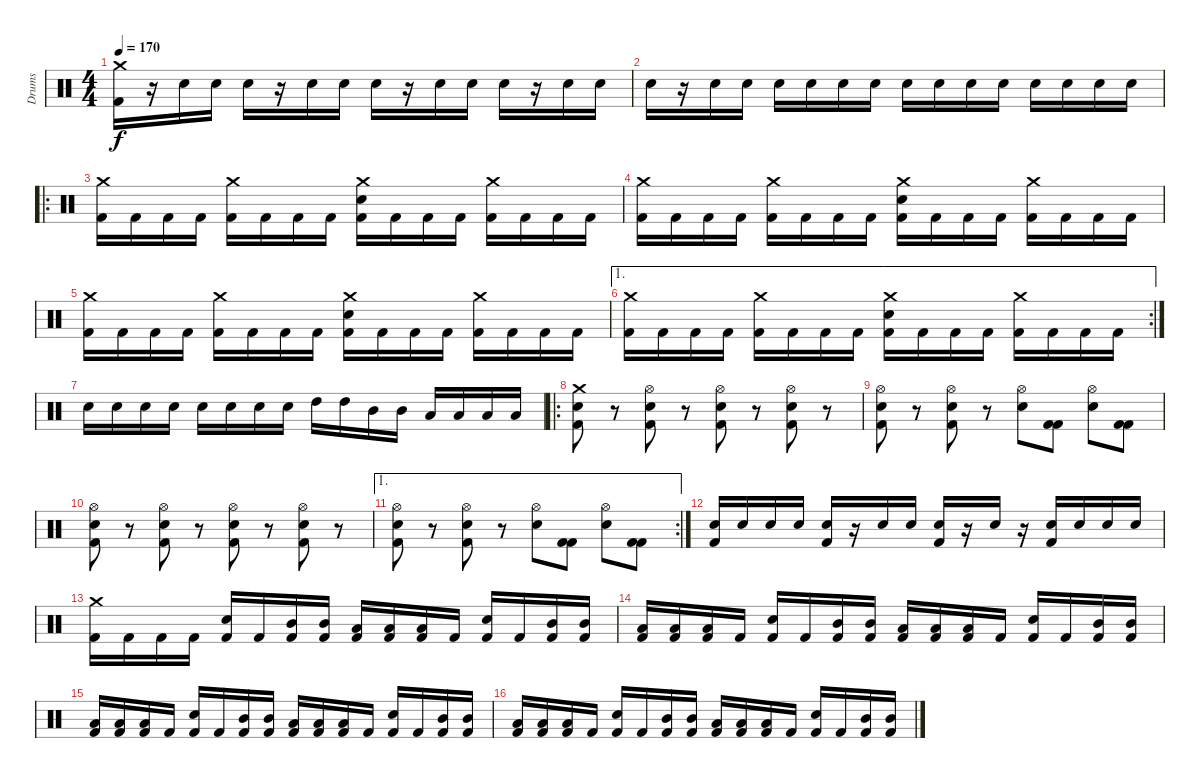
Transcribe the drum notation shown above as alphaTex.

\track ("Drums" "Drums") {instrument percussion}
\staff {score}
\articulation defaults
\ts (4 4)
\tempo 170
\clef neutral
\ks c
("Crash medium (hit)" "Kick (hit) 2").16{dy f} r.16 "Electric Snare (hit)".16 "Electric Snare (hit)".16 "Electric Snare (hit)".16 r.16 "Electric Snare (hit)".16 "Electric Snare (hit)".16 "Electric Snare (hit)".16 r.16 "Electric Snare (hit)".16 "Electric Snare (hit)".16 "Electric Snare (hit)".16 r.16 "Electric Snare (hit)".16 "Electric Snare (hit)".16 |
"Electric Snare (hit)".16 r.16 "Electric Snare (hit)".16 "Electric Snare (hit)".16 "Electric Snare (hit)".16 "Electric Snare (hit)".16 "Electric Snare (hit)".16 "Electric Snare (hit)".16 "Electric Snare (hit)".16 "Electric Snare (hit)".16 "Electric Snare (hit)".16 "Electric Snare (hit)".16 "Electric Snare (hit)".16 "Electric Snare (hit)".16 "Electric Snare (hit)".16 "Electric Snare (hit)".16 |
\ro
("Crash medium (hit)" "Kick (hit) 2").16 "Kick (hit) 2".16 "Kick (hit) 2".16 "Kick (hit) 2".16 ("Crash medium (hit)" "Kick (hit) 2").16 "Kick (hit) 2".16 "Kick (hit) 2".16 "Kick (hit) 2".16 ("Crash medium (hit)" "Electric Snare (hit)" "Kick (hit) 2").16 "Kick (hit) 2".16 "Kick (hit) 2".16 "Kick (hit) 2".16 ("Crash medium (hit)" "Kick (hit) 2").16 "Kick (hit) 2".16 "Kick (hit) 2".16 "Kick (hit) 2".16 |
("Crash medium (hit)" "Kick (hit) 2").16 "Kick (hit) 2".16 "Kick (hit) 2".16 "Kick (hit) 2".16 ("Crash medium (hit)" "Kick (hit) 2").16 "Kick (hit) 2".16 "Kick (hit) 2".16 "Kick (hit) 2".16 ("Crash medium (hit)" "Electric Snare (hit)" "Kick (hit) 2").16 "Kick (hit) 2".16 "Kick (hit) 2".16 "Kick (hit) 2".16 ("Crash medium (hit)" "Kick (hit) 2").16 "Kick (hit) 2".16 "Kick (hit) 2".16 "Kick (hit) 2".16 |
("Crash medium (hit)" "Kick (hit) 2").16 "Kick (hit) 2".16 "Kick (hit) 2".16 "Kick (hit) 2".16 ("Crash medium (hit)" "Kick (hit) 2").16 "Kick (hit) 2".16 "Kick (hit) 2".16 "Kick (hit) 2".16 ("Crash medium (hit)" "Electric Snare (hit)" "Kick (hit) 2").16 "Kick (hit) 2".16 "Kick (hit) 2".16 "Kick (hit) 2".16 ("Crash medium (hit)" "Kick (hit) 2").16 "Kick (hit) 2".16 "Kick (hit) 2".16 "Kick (hit) 2".16 |
\ae 1
\rc 2
("Crash medium (hit)" "Kick (hit) 2").16 "Kick (hit) 2".16 "Kick (hit) 2".16 "Kick (hit) 2".16 ("Crash medium (hit)" "Kick (hit) 2").16 "Kick (hit) 2".16 "Kick (hit) 2".16 "Kick (hit) 2".16 ("Crash medium (hit)" "Electric Snare (hit)" "Kick (hit) 2").16 "Kick (hit) 2".16 "Kick (hit) 2".16 "Kick (hit) 2".16 ("Crash medium (hit)" "Kick (hit) 2").16 "Kick (hit) 2".16 "Kick (hit) 2".16 "Kick (hit) 2".16 |
"Electric Snare (hit)".16 "Electric Snare (hit)".16 "Electric Snare (hit)".16 "Electric Snare (hit)".16 "Electric Snare (hit)".16 "Electric Snare (hit)".16 "Electric Snare (hit)".16 "Electric Snare (hit)".16 "High Tom (hit)".16 "High Tom (hit)".16 "Mid Tom (hit)".16 "Mid Tom (hit)".16 "Low Tom (hit)".16 "Low Tom (hit)".16 "Low Tom (hit)".16 "Low Tom (hit)".16 |
\ro
("Crash medium (hit)" "Electric Snare (hit)" "Kick (hit) 2").8 r.8 ("Hi-Hat (open)" "Electric Snare (hit)" "Kick (hit) 2").8 r.8 ("Hi-Hat (open)" "Electric Snare (hit)" "Kick (hit) 2").8 r.8 ("Hi-Hat (open)" "Electric Snare (hit)" "Kick (hit) 2").8 r.8 |
("Hi-Hat (open)" "Electric Snare (hit)" "Kick (hit) 2").8 r.8 ("Hi-Hat (open)" "Electric Snare (hit)" "Kick (hit) 2").8 r.8 ("Hi-Hat (open)" "Electric Snare (hit)").8 ("Kick (hit) 2" "Kick (hit) 2").8 ("Hi-Hat (open)" "Electric Snare (hit)").8 ("Kick (hit) 2" "Kick (hit) 2").8 |
("Hi-Hat (open)" "Electric Snare (hit)" "Kick (hit) 2").8 r.8 ("Hi-Hat (open)" "Electric Snare (hit)" "Kick (hit) 2").8 r.8 ("Hi-Hat (open)" "Electric Snare (hit)" "Kick (hit) 2").8 r.8 ("Hi-Hat (open)" "Electric Snare (hit)" "Kick (hit) 2").8 r.8 |
\ae 1
\rc 2
("Hi-Hat (open)" "Electric Snare (hit)" "Kick (hit) 2").8 r.8 ("Hi-Hat (open)" "Electric Snare (hit)" "Kick (hit) 2").8 r.8 ("Hi-Hat (open)" "Electric Snare (hit)").8 ("Kick (hit) 2" "Kick (hit) 2").8 ("Hi-Hat (open)" "Electric Snare (hit)").8 ("Kick (hit) 2" "Kick (hit) 2").8 |
("Electric Snare (hit)" "Kick (hit) 2").16 "Electric Snare (hit)".16 "Electric Snare (hit)".16 "Electric Snare (hit)".16 ("Electric Snare (hit)" "Kick (hit) 2").16 r.16 "Electric Snare (hit)".16 "Electric Snare (hit)".16 ("Electric Snare (hit)" "Kick (hit) 2").16 r.16 "Electric Snare (hit)".16 r.16 ("Electric Snare (hit)" "Kick (hit) 2").16 "Electric Snare (hit)".16 "Electric Snare (hit)".16 "Electric Snare (hit)".16 |
("Crash medium (hit)" "Kick (hit) 2").16 "Kick (hit) 2".16 "Kick (hit) 2".16 "Kick (hit) 2".16 ("Electric Snare (hit)" "Kick (hit) 2").16 "Kick (hit) 2".16 ("Mid Tom (hit)" "Kick (hit) 2").16 ("Mid Tom (hit)" "Kick (hit) 2").16 ("Low Tom (hit)" "Kick (hit) 2").16 ("Low Tom (hit)" "Kick (hit) 2").16 ("Low Tom (hit)" "Kick (hit) 2").16 "Kick (hit) 2".16 ("Electric Snare (hit)" "Kick (hit) 2").16 "Kick (hit) 2".16 ("Mid Tom (hit)" "Kick (hit) 2").16 ("Mid Tom (hit)" "Kick (hit) 2").16 |
("Low Tom (hit)" "Kick (hit) 2").16 ("Low Tom (hit)" "Kick (hit) 2").16 ("Low Tom (hit)" "Kick (hit) 2").16 "Kick (hit) 2".16 ("Electric Snare (hit)" "Kick (hit) 2").16 "Kick (hit) 2".16 ("Mid Tom (hit)" "Kick (hit) 2").16 ("Mid Tom (hit)" "Kick (hit) 2").16 ("Low Tom (hit)" "Kick (hit) 2").16 ("Low Tom (hit)" "Kick (hit) 2").16 ("Low Tom (hit)" "Kick (hit) 2").16 "Kick (hit) 2".16 ("Electric Snare (hit)" "Kick (hit) 2").16 "Kick (hit) 2".16 ("Mid Tom (hit)" "Kick (hit) 2").16 ("Mid Tom (hit)" "Kick (hit) 2").16 |
("Low Tom (hit)" "Kick (hit) 2").16 ("Low Tom (hit)" "Kick (hit) 2").16 ("Low Tom (hit)" "Kick (hit) 2").16 "Kick (hit) 2".16 ("Electric Snare (hit)" "Kick (hit) 2").16 "Kick (hit) 2".16 ("Mid Tom (hit)" "Kick (hit) 2").16 ("Mid Tom (hit)" "Kick (hit) 2").16 ("Low Tom (hit)" "Kick (hit) 2").16 ("Low Tom (hit)" "Kick (hit) 2").16 ("Low Tom (hit)" "Kick (hit) 2").16 "Kick (hit) 2".16 ("Electric Snare (hit)" "Kick (hit) 2").16 "Kick (hit) 2".16 ("Mid Tom (hit)" "Kick (hit) 2").16 ("Mid Tom (hit)" "Kick (hit) 2").16 |
("Low Tom (hit)" "Kick (hit) 2").16 ("Low Tom (hit)" "Kick (hit) 2").16 ("Low Tom (hit)" "Kick (hit) 2").16 "Kick (hit) 2".16 ("Electric Snare (hit)" "Kick (hit) 2").16 "Kick (hit) 2".16 ("Mid Tom (hit)" "Kick (hit) 2").16 ("Mid Tom (hit)" "Kick (hit) 2").16 ("Low Tom (hit)" "Kick (hit) 2").16 ("Low Tom (hit)" "Kick (hit) 2").16 ("Low Tom (hit)" "Kick (hit) 2").16 "Kick (hit) 2".16 ("Electric Snare (hit)" "Kick (hit) 2").16 "Kick (hit) 2".16 ("Mid Tom (hit)" "Kick (hit) 2").16 ("Mid Tom (hit)" "Kick (hit) 2").16
